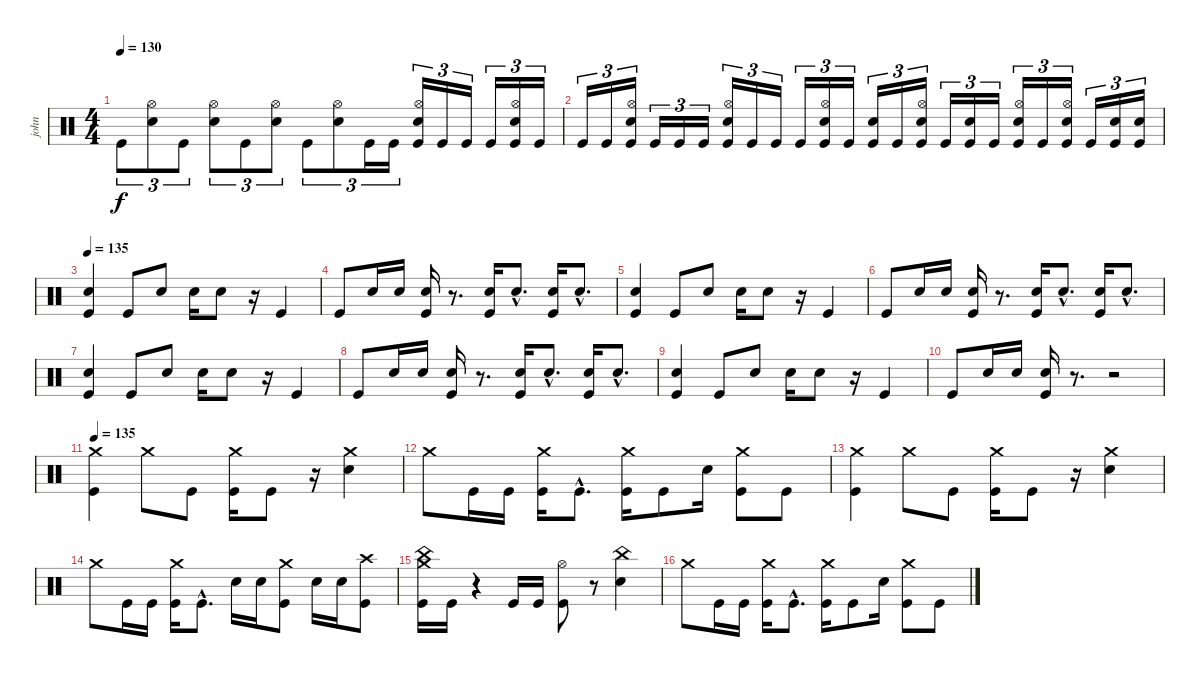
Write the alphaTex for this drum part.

\track ("john" "john") {instrument percussion}
\staff {score}
\articulation defaults
\ts (4 4)
\tempo 130
\clef neutral
\ks c "Kick (hit)".8{tu (3 2) dy f}
("Hi-Hat (open)" "Snare (hit) 2").8{tu (3 2)} "Kick (hit)".8{tu (3 2)} ("Hi-Hat (open)" "Snare (hit) 2").8{tu (3 2)} "Kick (hit)".8{tu (3 2)} ("Hi-Hat (open)" "Snare (hit) 2").8{tu (3 2)} "Kick (hit)".8{tu (3 2)} ("Hi-Hat (open)" "Snare (hit) 2").8{tu (3 2)} "Kick (hit)".16{tu (3 2)} "Kick (hit)".16{tu (3 2)} ("Kick (hit)" "Hi-Hat (open)" "Snare (hit) 2").16{tu (3 2)} "Kick (hit)".16{tu (3 2)} "Kick (hit)".16{tu (3 2)} "Kick (hit)".16{tu (3 2)} ("Kick (hit)" "Hi-Hat (open)" "Snare (hit) 2").16{tu (3 2)} "Kick (hit)".16{tu (3 2)} |
"Kick (hit)".16{tu (3 2)} "Kick (hit)".16{tu (3 2)} ("Kick (hit)" "Hi-Hat (open)" "Snare (hit) 2").16{tu (3 2)} "Kick (hit)".16{tu (3 2)} "Kick (hit)".16{tu (3 2)} "Kick (hit)".16{tu (3 2)} ("Kick (hit)" "Snare (hit) 2" "Hi-Hat (open)").16{tu (3 2)} "Kick (hit)".16{tu (3 2)} "Kick (hit)".16{tu (3 2)} "Kick (hit)".16{tu (3 2)} ("Kick (hit)" "Hi-Hat (open)" "Snare (hit) 2").16{tu (3 2)} "Kick (hit)".16{tu (3 2)} ("Kick (hit)" "Snare (hit) 2").16{tu (3 2)} "Kick (hit)".16{tu (3 2)} ("Kick (hit)" "Hi-Hat (open)" "Snare (hit) 2").16{tu (3 2)} "Kick (hit)".16{tu (3 2)} ("Kick (hit)" "Snare (hit) 2").16{tu (3 2)} "Kick (hit)".16{tu (3 2)} ("Kick (hit)" "Hi-Hat (open)" "Snare (hit) 2").16{tu (3 2)} "Kick (hit)".16{tu (3 2)} ("Kick (hit)" "Hi-Hat (open)" "Snare (hit) 2").16{tu (3 2)} "Kick (hit)".16{tu (3 2)} ("Kick (hit)" "Snare (hit) 2").16{tu (3 2)} ("Kick (hit)" "Snare (hit) 2").16{tu (3 2)} |
\tempo 135
("Kick (hit)" "Snare (hit) 2").4 "Kick (hit)".8 "Snare (hit) 2".8 "Snare (hit) 2".16 "Snare (hit) 2".8 r.16 "Kick (hit)".4 |
"Kick (hit)".8 "Snare (hit) 2".16 "Snare (hit) 2".16 ("Kick (hit)" "Snare (hit) 2").16 r.8{d} ("Kick (hit)" "Snare (hit) 2").16 "Snare (hit) 2"{hac}.8{d} ("Kick (hit)" "Snare (hit) 2").16 "Snare (hit) 2"{hac}.8{d} |
("Kick (hit)" "Snare (hit) 2").4 "Kick (hit)".8 "Snare (hit) 2".8 "Snare (hit) 2".16 "Snare (hit) 2".8 r.16 "Kick (hit)".4 |
"Kick (hit)".8 "Snare (hit) 2".16 "Snare (hit) 2".16 ("Kick (hit)" "Snare (hit) 2").16 r.8{d} ("Kick (hit)" "Snare (hit) 2").16 "Snare (hit) 2"{hac}.8{d} ("Kick (hit)" "Snare (hit) 2").16 "Snare (hit) 2"{hac}.8{d} |
("Kick (hit)" "Snare (hit) 2").4 "Kick (hit)".8 "Snare (hit) 2".8 "Snare (hit) 2".16 "Snare (hit) 2".8 r.16 "Kick (hit)".4 |
"Kick (hit)".8 "Snare (hit) 2".16 "Snare (hit) 2".16 ("Kick (hit)" "Snare (hit) 2").16 r.8{d} ("Kick (hit)" "Snare (hit) 2").16 "Snare (hit) 2"{hac}.8{d} ("Kick (hit)" "Snare (hit) 2").16 "Snare (hit) 2"{hac}.8{d} |
("Kick (hit)" "Snare (hit) 2").4 "Kick (hit)".8 "Snare (hit) 2".8 "Snare (hit) 2".16 "Snare (hit) 2".8 r.16 "Kick (hit)".4 |
"Kick (hit)".8 "Snare (hit) 2".16 "Snare (hit) 2".16 ("Kick (hit)" "Snare (hit) 2").16 r.8{d} r.2 |
\tempo 135
("Kick (hit)" "Crash medium (hit)").4 "Crash medium (hit)".8 "Kick (hit)".8 ("Kick (hit)" "Crash medium (hit)").16 "Kick (hit)".8 r.16 ("Snare (hit) 2" "Crash medium (hit)").4 |
"Crash medium (hit)".8 "Kick (hit)".16 "Kick (hit)".16 ("Kick (hit)" "Crash medium (hit)").16 "Kick (hit)"{hac}.8{d} ("Kick (hit)" "Crash medium (hit)").16 "Kick (hit)".8 "Snare (hit) 2".16 ("Kick (hit)" "Crash medium (hit)").8 "Kick (hit)".8 |
("Kick (hit)" "Crash medium (hit)").4 "Crash medium (hit)".8 "Kick (hit)".8 ("Kick (hit)" "Crash medium (hit)").16 "Kick (hit)".8 r.16 ("Snare (hit) 2" "Crash medium (hit)").4 |
"Crash medium (hit)".8 "Kick (hit)".16 "Kick (hit)".16 ("Kick (hit)" "Crash medium (hit)").16 "Kick (hit)"{hac}.8{d} "Snare (hit) 2".16 "Snare (hit) 2".16 ("Crash medium (hit)" "Kick (hit)").8 "Snare (hit) 2".16 "Snare (hit) 2".16 ("Crash high (hit)" "Kick (hit)").8 |
("Kick (hit)" "China (hit)" "Crash medium (hit)").16 "Kick (hit)".16 r.4 "Kick (hit)".16 "Kick (hit)".16 ("Kick (hit)" "Hi-Hat (open)").8 r.8 ("China (hit)" "Snare (hit) 2").4 |
"Crash medium (hit)".8 "Kick (hit)".16 "Kick (hit)".16 ("Kick (hit)" "Crash medium (hit)").16 "Kick (hit)"{hac}.8{d} ("Kick (hit)" "Crash medium (hit)").16 "Kick (hit)".8 "Snare (hit) 2".16 ("Kick (hit)" "Crash medium (hit)").8 "Kick (hit)".8
